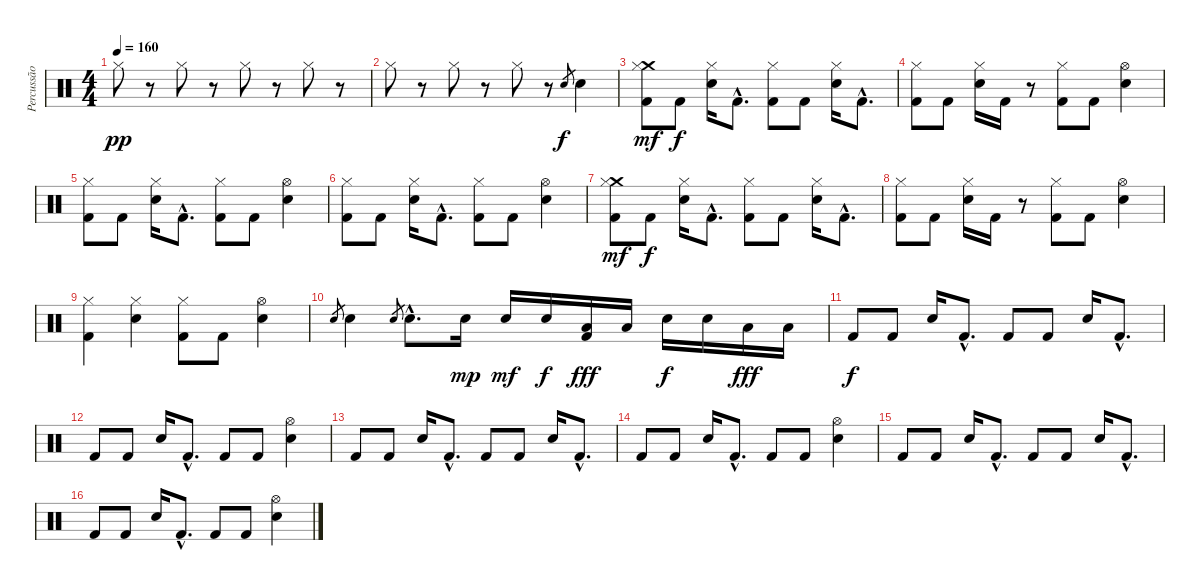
\track ("Percussão" "Percussão") {instrument percussion}
\staff {score}
\articulation defaults
\ts (4 4)
\tempo 160
\clef neutral
\ks c "Hi-Hat (closed)".8{dy pp}
r.8 "Hi-Hat (closed)".8 r.8 "Hi-Hat (closed)".8 r.8 "Hi-Hat (closed)".8 r.8 |
"Hi-Hat (closed)".8 r.8 "Hi-Hat (closed)".8 r.8 "Hi-Hat (closed)".8 r.8 "Snare (hit) 2".8{gr dy f} "Snare (hit) 2".4 |
("Crash medium (hit)" "Hi-Hat (closed)" "Kick (hit) 2").8{dy mf} "Kick (hit) 2".8{dy f} ("Hi-Hat (closed)" "Snare (hit) 2").16 "Kick (hit) 2"{hac}.8{d} ("Hi-Hat (closed)" "Kick (hit) 2").8 "Kick (hit) 2".8 ("Hi-Hat (closed)" "Snare (hit) 2").16 "Kick (hit) 2"{hac}.8{d} |
("Hi-Hat (closed)" "Kick (hit) 2").8 "Kick (hit) 2".8 ("Hi-Hat (closed)" "Snare (hit) 2").16 "Kick (hit) 2".16 r.8 ("Hi-Hat (closed)" "Kick (hit) 2").8 "Kick (hit) 2".8 ("Hi-Hat (open)" "Snare (hit) 2").4 |
("Hi-Hat (closed)" "Kick (hit) 2").8 "Kick (hit) 2".8 ("Hi-Hat (closed)" "Snare (hit) 2").16 "Kick (hit) 2"{hac}.8{d} ("Hi-Hat (closed)" "Kick (hit) 2").8 "Kick (hit) 2".8 ("Hi-Hat (open)" "Snare (hit) 2").4 |
("Hi-Hat (closed)" "Kick (hit) 2").8 "Kick (hit) 2".8 ("Hi-Hat (closed)" "Snare (hit) 2").16 "Kick (hit) 2"{hac}.8{d} ("Hi-Hat (closed)" "Kick (hit) 2").8 "Kick (hit) 2".8 ("Hi-Hat (open)" "Snare (hit) 2").4 |
("Crash medium (hit)" "Hi-Hat (closed)" "Kick (hit) 2").8{dy mf} "Kick (hit) 2".8{dy f} ("Hi-Hat (closed)" "Snare (hit) 2").16 "Kick (hit) 2"{hac}.8{d} ("Hi-Hat (closed)" "Kick (hit) 2").8 "Kick (hit) 2".8 ("Hi-Hat (closed)" "Snare (hit) 2").16 "Kick (hit) 2"{hac}.8{d} |
("Hi-Hat (closed)" "Kick (hit) 2").8 "Kick (hit) 2".8 ("Hi-Hat (closed)" "Snare (hit) 2").16 "Kick (hit) 2".16 r.8 ("Hi-Hat (closed)" "Kick (hit) 2").8 "Kick (hit) 2".8 ("Hi-Hat (open)" "Snare (hit) 2").4 |
("Hi-Hat (closed)" "Kick (hit) 2").4 ("Hi-Hat (closed)" "Snare (hit) 2").4 ("Hi-Hat (closed)" "Kick (hit) 2").8 "Kick (hit) 2".8 ("Hi-Hat (open)" "Snare (hit) 2").4 |
"Snare (hit) 2".8{gr} "Snare (hit) 2".4 "Snare (hit) 2".8{gr} "Snare (hit) 2"{hac}.8{d} "Snare (hit) 2".16{dy mp} "Snare (hit) 2".16{dy mf} "Snare (hit) 2".16{dy f} ("Low Tom (hit)" "Kick (hit) 2").16{dy fff} "Low Tom (hit)".16 "Snare (hit) 2".16{dy f} "Snare (hit) 2".16 "Low Tom (hit)".16{dy fff} "Low Tom (hit)".16 |
"Kick (hit) 2".8{dy f} "Kick (hit) 2".8 "Snare (hit) 2".16 "Kick (hit) 2"{hac}.8{d} "Kick (hit) 2".8 "Kick (hit) 2".8 "Snare (hit) 2".16 "Kick (hit) 2"{hac}.8{d} |
"Kick (hit) 2".8 "Kick (hit) 2".8 "Snare (hit) 2".16 "Kick (hit) 2"{hac}.8{d} "Kick (hit) 2".8 "Kick (hit) 2".8 ("Hi-Hat (open)" "Snare (hit) 2").4 |
"Kick (hit) 2".8 "Kick (hit) 2".8 "Snare (hit) 2".16 "Kick (hit) 2"{hac}.8{d} "Kick (hit) 2".8 "Kick (hit) 2".8 "Snare (hit) 2".16 "Kick (hit) 2"{hac}.8{d} |
"Kick (hit) 2".8 "Kick (hit) 2".8 "Snare (hit) 2".16 "Kick (hit) 2"{hac}.8{d} "Kick (hit) 2".8 "Kick (hit) 2".8 ("Hi-Hat (open)" "Snare (hit) 2").4 |
"Kick (hit) 2".8 "Kick (hit) 2".8 "Snare (hit) 2".16 "Kick (hit) 2"{hac}.8{d} "Kick (hit) 2".8 "Kick (hit) 2".8 "Snare (hit) 2".16 "Kick (hit) 2"{hac}.8{d} |
"Kick (hit) 2".8 "Kick (hit) 2".8 "Snare (hit) 2".16 "Kick (hit) 2"{hac}.8{d} "Kick (hit) 2".8 "Kick (hit) 2".8 ("Hi-Hat (open)" "Snare (hit) 2").4
